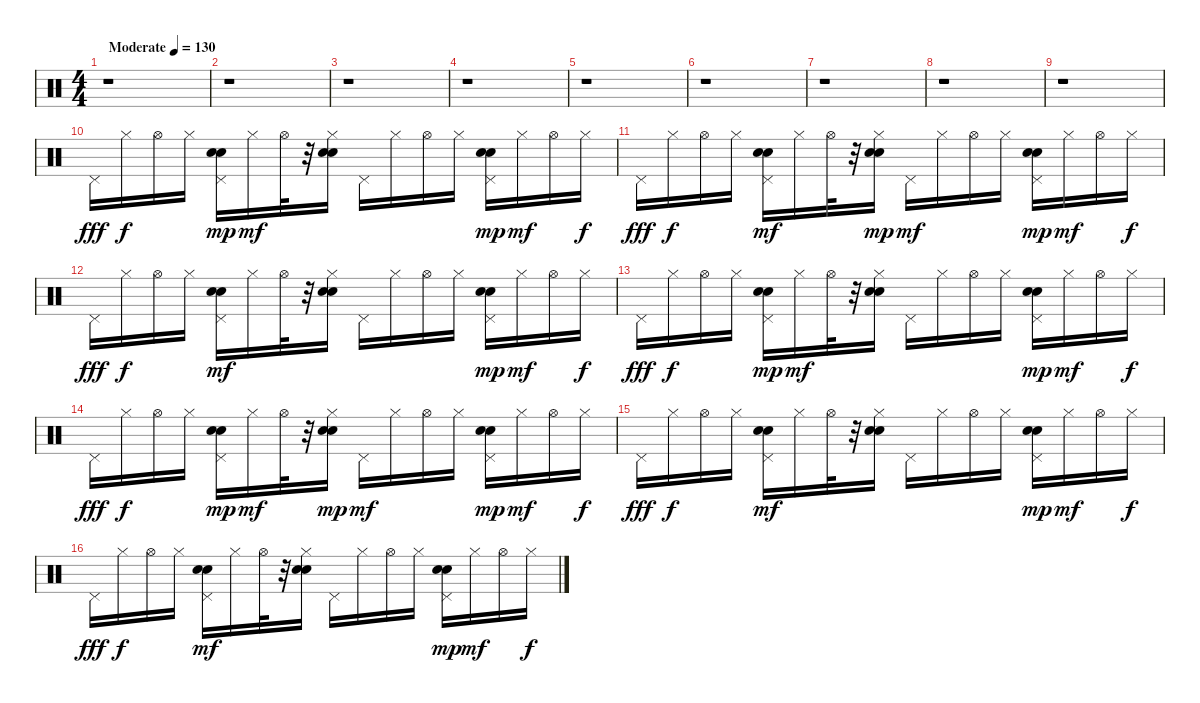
\track "" {instrument percussion}
\staff {score}
\articulation defaults
\ts (4 4)
\tempo (130 "Moderate")
\clef neutral
\ks c
r.1{dy fff} |
r.1 |
r.1 |
r.1 |
r.1 |
r.1 |
r.1 |
r.1 |
r.1 |
"Pedal Hi-Hat (hit)".16 "Hi-Hat (closed)".16{dy f} "Hi-Hat (open)".16 "Hi-Hat (closed)".16 ("Pedal Hi-Hat (hit)" "Electric Snare (hit)" "Hand Clap (hit)").16{dy mp} "Hi-Hat (closed)".16{dy mf} "Hi-Hat (open)".32 r.32 ("Hand Clap (hit)" "Electric Snare (hit)" "Hi-Hat (closed)").16 "Pedal Hi-Hat (hit)".16 "Hi-Hat (closed)".16 "Hi-Hat (open)".16 "Hi-Hat (closed)".16 ("Pedal Hi-Hat (hit)" "Hand Clap (hit)" "Electric Snare (hit)").16{dy mp} "Hi-Hat (closed)".16{dy mf} "Hi-Hat (open)".16 "Hi-Hat (closed)".16{dy f} |
"Pedal Hi-Hat (hit)".16{dy fff} "Hi-Hat (closed)".16{dy f} "Hi-Hat (open)".16 "Hi-Hat (closed)".16 ("Electric Snare (hit)" "Hand Clap (hit)" "Pedal Hi-Hat (hit)").16{dy mf} "Hi-Hat (closed)".16 "Hi-Hat (open)".32 r.32 ("Hi-Hat (closed)" "Electric Snare (hit)" "Hand Clap (hit)").16{dy mp} "Pedal Hi-Hat (hit)".16{dy mf} "Hi-Hat (closed)".16 "Hi-Hat (open)".16 "Hi-Hat (closed)".16 ("Pedal Hi-Hat (hit)" "Electric Snare (hit)" "Hand Clap (hit)").16{dy mp} "Hi-Hat (closed)".16{dy mf} "Hi-Hat (open)".16 "Hi-Hat (closed)".16{dy f} |
"Pedal Hi-Hat (hit)".16{dy fff} "Hi-Hat (closed)".16{dy f} "Hi-Hat (open)".16 "Hi-Hat (closed)".16 ("Hand Clap (hit)" "Electric Snare (hit)" "Pedal Hi-Hat (hit)").16{dy mf} "Hi-Hat (closed)".16 "Hi-Hat (open)".32 r.32 ("Hand Clap (hit)" "Electric Snare (hit)" "Hi-Hat (closed)").16 "Pedal Hi-Hat (hit)".16 "Hi-Hat (closed)".16 "Hi-Hat (open)".16 "Hi-Hat (closed)".16 ("Pedal Hi-Hat (hit)" "Hand Clap (hit)" "Electric Snare (hit)").16{dy mp} "Hi-Hat (closed)".16{dy mf} "Hi-Hat (open)".16 "Hi-Hat (closed)".16{dy f} |
"Pedal Hi-Hat (hit)".16{dy fff} "Hi-Hat (closed)".16{dy f} "Hi-Hat (open)".16 "Hi-Hat (closed)".16 ("Pedal Hi-Hat (hit)" "Electric Snare (hit)" "Hand Clap (hit)").16{dy mp} "Hi-Hat (closed)".16{dy mf} "Hi-Hat (open)".32 r.32 ("Hand Clap (hit)" "Electric Snare (hit)" "Hi-Hat (closed)").16 "Pedal Hi-Hat (hit)".16 "Hi-Hat (closed)".16 "Hi-Hat (open)".16 "Hi-Hat (closed)".16 ("Pedal Hi-Hat (hit)" "Electric Snare (hit)" "Hand Clap (hit)").16{dy mp} "Hi-Hat (closed)".16{dy mf} "Hi-Hat (open)".16 "Hi-Hat (closed)".16{dy f} |
"Pedal Hi-Hat (hit)".16{dy fff} "Hi-Hat (closed)".16{dy f} "Hi-Hat (open)".16 "Hi-Hat (closed)".16 ("Pedal Hi-Hat (hit)" "Electric Snare (hit)" "Hand Clap (hit)").16{dy mp} "Hi-Hat (closed)".16{dy mf} "Hi-Hat (open)".32 r.32 ("Electric Snare (hit)" "Hi-Hat (closed)" "Hand Clap (hit)").16{dy mp} "Pedal Hi-Hat (hit)".16{dy mf} "Hi-Hat (closed)".16 "Hi-Hat (open)".16 "Hi-Hat (closed)".16 ("Pedal Hi-Hat (hit)" "Hand Clap (hit)" "Electric Snare (hit)").16{dy mp} "Hi-Hat (closed)".16{dy mf} "Hi-Hat (open)".16 "Hi-Hat (closed)".16{dy f} |
"Pedal Hi-Hat (hit)".16{dy fff} "Hi-Hat (closed)".16{dy f} "Hi-Hat (open)".16 "Hi-Hat (closed)".16 ("Electric Snare (hit)" "Hand Clap (hit)" "Pedal Hi-Hat (hit)").16{dy mf} "Hi-Hat (closed)".16 "Hi-Hat (open)".32 r.32 ("Electric Snare (hit)" "Hand Clap (hit)" "Hi-Hat (closed)").16 "Pedal Hi-Hat (hit)".16 "Hi-Hat (closed)".16 "Hi-Hat (open)".16 "Hi-Hat (closed)".16 ("Pedal Hi-Hat (hit)" "Electric Snare (hit)" "Hand Clap (hit)").16{dy mp} "Hi-Hat (closed)".16{dy mf} "Hi-Hat (open)".16 "Hi-Hat (closed)".16{dy f} |
"Pedal Hi-Hat (hit)".16{dy fff} "Hi-Hat (closed)".16{dy f} "Hi-Hat (open)".16 "Hi-Hat (closed)".16 ("Hand Clap (hit)" "Electric Snare (hit)" "Pedal Hi-Hat (hit)").16{dy mf} "Hi-Hat (closed)".16 "Hi-Hat (open)".32 r.32 ("Hand Clap (hit)" "Electric Snare (hit)" "Hi-Hat (closed)").16 "Pedal Hi-Hat (hit)".16 "Hi-Hat (closed)".16 "Hi-Hat (open)".16 "Hi-Hat (closed)".16 ("Pedal Hi-Hat (hit)" "Hand Clap (hit)" "Electric Snare (hit)").16{dy mp} "Hi-Hat (closed)".16{dy mf} "Hi-Hat (open)".16 "Hi-Hat (closed)".16{dy f}
